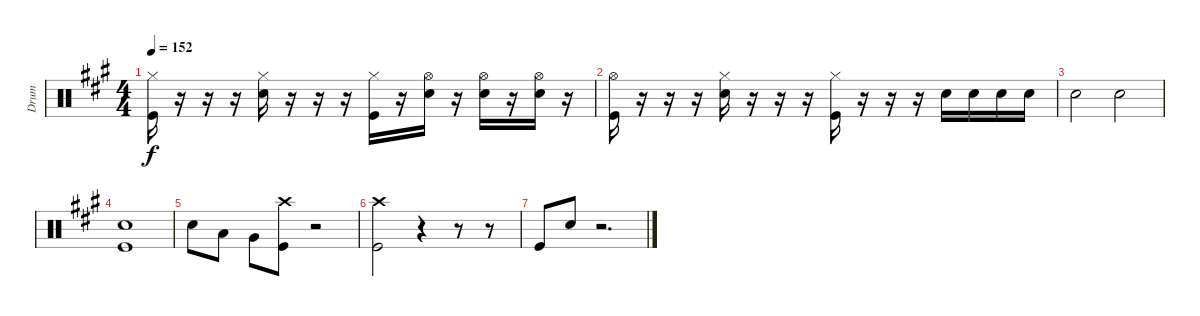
\track ("Drum" "Drum") {instrument percussion}
\staff {score}
\articulation defaults
\ts (4 4)
\tempo 152
\clef neutral
\ks a
("Kick (hit)" "Hi-Hat (closed)").16{dy f} r.16 r.16 r.16 ("Snare (hit) 2" "Hi-Hat (closed)").16 r.16 r.16 r.16 ("Kick (hit)" "Hi-Hat (closed)").16 r.16 ("Snare (hit) 2" "Hi-Hat (open)").16 r.16 ("Snare (hit) 2" "Hi-Hat (open)").16 r.16 ("Snare (hit) 2" "Hi-Hat (open)").16 r.16 |
("Kick (hit)" "Hi-Hat (open)").16 r.16 r.16 r.16 ("Snare (hit) 2" "Hi-Hat (closed)").16 r.16 r.16 r.16 ("Kick (hit)" "Hi-Hat (closed)").16 r.16 r.16 r.16 "Snare (hit) 2".16 "Snare (hit) 2".16 "Snare (hit) 2".16 "Snare (hit) 2".16 |
"Snare (hit) 2".2 "Snare (hit) 2".2 |
("Kick (hit)" "Snare (hit) 2").1 |
"Snare (hit) 2".8 "Low Tom (hit)".8 "Very Low Tom (hit)".8 ("Kick (hit)" "Crash high (hit)").8 r.2 |
("Kick (hit)" "Crash high (hit)").2 r.4 r.8 r.8 |
"Kick (hit)".8 "Snare (hit) 2".8 r.2{d}
